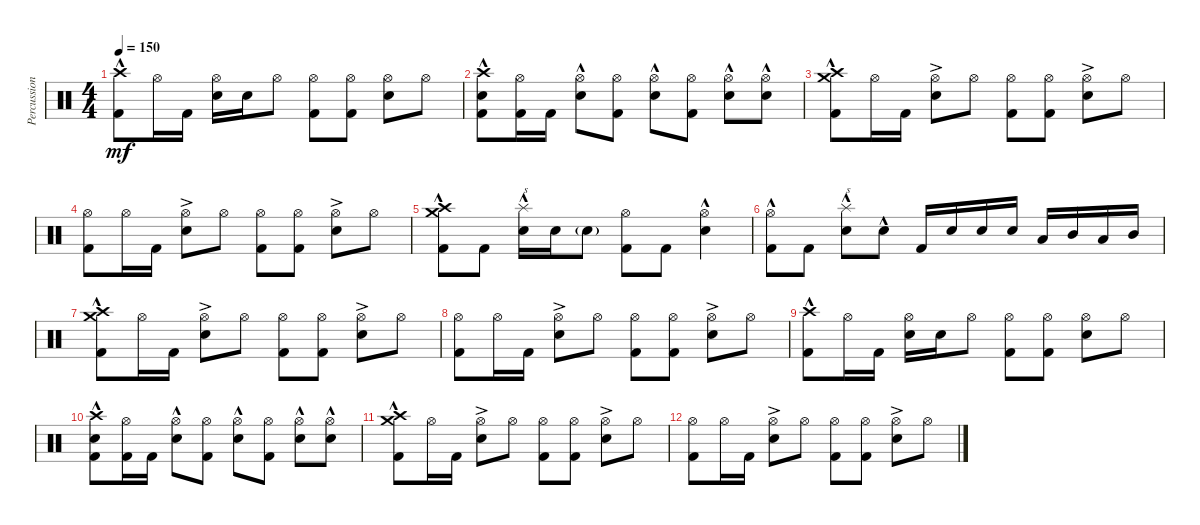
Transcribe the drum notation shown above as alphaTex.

\track ("Percussion" "Percussion") {instrument percussion}
\staff {score}
\articulation defaults
\ts (4 4)
\tempo 150
\clef neutral
\ks c
("Crash high (hit)"{hac} "Kick (hit) 2").8{dy mf} "Hi-Hat (open)".16 "Kick (hit) 2".16 ("Hi-Hat (open)" "Electric Snare (hit)").16 "Electric Snare (hit)".16 "Hi-Hat (open)".8 ("Hi-Hat (open)" "Kick (hit) 2").8 ("Hi-Hat (open)" "Kick (hit) 2").8 ("Hi-Hat (open)" "Electric Snare (hit)").8 "Hi-Hat (open)".8 |
("Crash high (hit)"{hac} "Electric Snare (hit)"{hac} "Kick (hit) 2").8 ("Hi-Hat (open)" "Kick (hit) 2").16 "Kick (hit) 2".16 ("Hi-Hat (open)" "Electric Snare (hit)"{hac}).8 ("Hi-Hat (open)" "Kick (hit) 2").8 ("Hi-Hat (open)" "Electric Snare (hit)"{hac}).8 ("Hi-Hat (open)" "Kick (hit) 2").8 ("Hi-Hat (open)" "Electric Snare (hit)"{hac}).8 ("Hi-Hat (open)" "Electric Snare (hit)"{hac}).8 |
("Crash high (hit)"{hac} "Crash medium (hit)" "Kick (hit) 2").8 "Hi-Hat (open)".16 "Kick (hit) 2".16 ("Hi-Hat (open)" "Electric Snare (hit)"{ac}).8 "Hi-Hat (open)".8 ("Hi-Hat (open)" "Kick (hit) 2").8 ("Hi-Hat (open)" "Kick (hit) 2").8 ("Hi-Hat (open)" "Electric Snare (hit)"{ac}).8 "Hi-Hat (open)".8 |
("Hi-Hat (open)" "Kick (hit) 2").8 "Hi-Hat (open)".16 "Kick (hit) 2".16 ("Hi-Hat (open)" "Electric Snare (hit)"{ac}).8 "Hi-Hat (open)".8 ("Hi-Hat (open)" "Kick (hit) 2").8 ("Hi-Hat (open)" "Kick (hit) 2").8 ("Hi-Hat (open)" "Electric Snare (hit)"{ac}).8 "Hi-Hat (open)".8 |
("Crash medium (hit)"{hac} "Crash high (hit)"{hac} "Kick (hit) 2").8 "Kick (hit) 2".8 ("Splash (hit)"{hac} "Electric Snare (hit)").16{txt "s"} "Electric Snare (hit)".16 "Electric Snare (hit)"{g}.8 ("Hi-Hat (open)" "Kick (hit) 2").8 "Kick (hit) 2".8 ("Hi-Hat (open)" "Electric Snare (hit)"{hac}).4 |
("Hi-Hat (open)"{hac} "Kick (hit) 2").8 "Kick (hit) 2".8 ("Splash (hit)" "Electric Snare (hit)"{hac}).8{txt "s"} "Electric Snare (hit)"{hac}.8 "Kick (hit) 2".16 "Electric Snare (hit)".16 "Electric Snare (hit)".16 "Electric Snare (hit)".16 "Low Tom (hit)".16 "Mid Tom (hit)".16 "Low Tom (hit)".16 "Mid Tom (hit)".16 |
("Crash high (hit)"{hac} "Crash medium (hit)" "Kick (hit) 2").8 "Hi-Hat (open)".16 "Kick (hit) 2".16 ("Hi-Hat (open)" "Electric Snare (hit)"{ac}).8 "Hi-Hat (open)".8 ("Hi-Hat (open)" "Kick (hit) 2").8 ("Hi-Hat (open)" "Kick (hit) 2").8 ("Hi-Hat (open)" "Electric Snare (hit)"{ac}).8 "Hi-Hat (open)".8 |
("Hi-Hat (open)" "Kick (hit) 2").8 "Hi-Hat (open)".16 "Kick (hit) 2".16 ("Hi-Hat (open)" "Electric Snare (hit)"{ac}).8 "Hi-Hat (open)".8 ("Hi-Hat (open)" "Kick (hit) 2").8 ("Hi-Hat (open)" "Kick (hit) 2").8 ("Hi-Hat (open)" "Electric Snare (hit)"{ac}).8 "Hi-Hat (open)".8 |
("Crash high (hit)"{hac} "Kick (hit) 2").8 "Hi-Hat (open)".16 "Kick (hit) 2".16 ("Hi-Hat (open)" "Electric Snare (hit)").16 "Electric Snare (hit)".16 "Hi-Hat (open)".8 ("Hi-Hat (open)" "Kick (hit) 2").8 ("Hi-Hat (open)" "Kick (hit) 2").8 ("Hi-Hat (open)" "Electric Snare (hit)").8 "Hi-Hat (open)".8 |
("Crash high (hit)"{hac} "Electric Snare (hit)"{hac} "Kick (hit) 2").8 ("Hi-Hat (open)" "Kick (hit) 2").16 "Kick (hit) 2".16 ("Hi-Hat (open)" "Electric Snare (hit)"{hac}).8 ("Hi-Hat (open)" "Kick (hit) 2").8 ("Hi-Hat (open)" "Electric Snare (hit)"{hac}).8 ("Hi-Hat (open)" "Kick (hit) 2").8 ("Hi-Hat (open)" "Electric Snare (hit)"{hac}).8 ("Hi-Hat (open)" "Electric Snare (hit)"{hac}).8 |
("Crash high (hit)"{hac} "Crash medium (hit)" "Kick (hit) 2").8 "Hi-Hat (open)".16 "Kick (hit) 2".16 ("Hi-Hat (open)" "Electric Snare (hit)"{ac}).8 "Hi-Hat (open)".8 ("Hi-Hat (open)" "Kick (hit) 2").8 ("Hi-Hat (open)" "Kick (hit) 2").8 ("Hi-Hat (open)" "Electric Snare (hit)"{ac}).8 "Hi-Hat (open)".8 |
("Hi-Hat (open)" "Kick (hit) 2").8 "Hi-Hat (open)".16 "Kick (hit) 2".16 ("Hi-Hat (open)" "Electric Snare (hit)"{ac}).8 "Hi-Hat (open)".8 ("Hi-Hat (open)" "Kick (hit) 2").8 ("Hi-Hat (open)" "Kick (hit) 2").8 ("Hi-Hat (open)" "Electric Snare (hit)"{ac}).8 "Hi-Hat (open)".8
